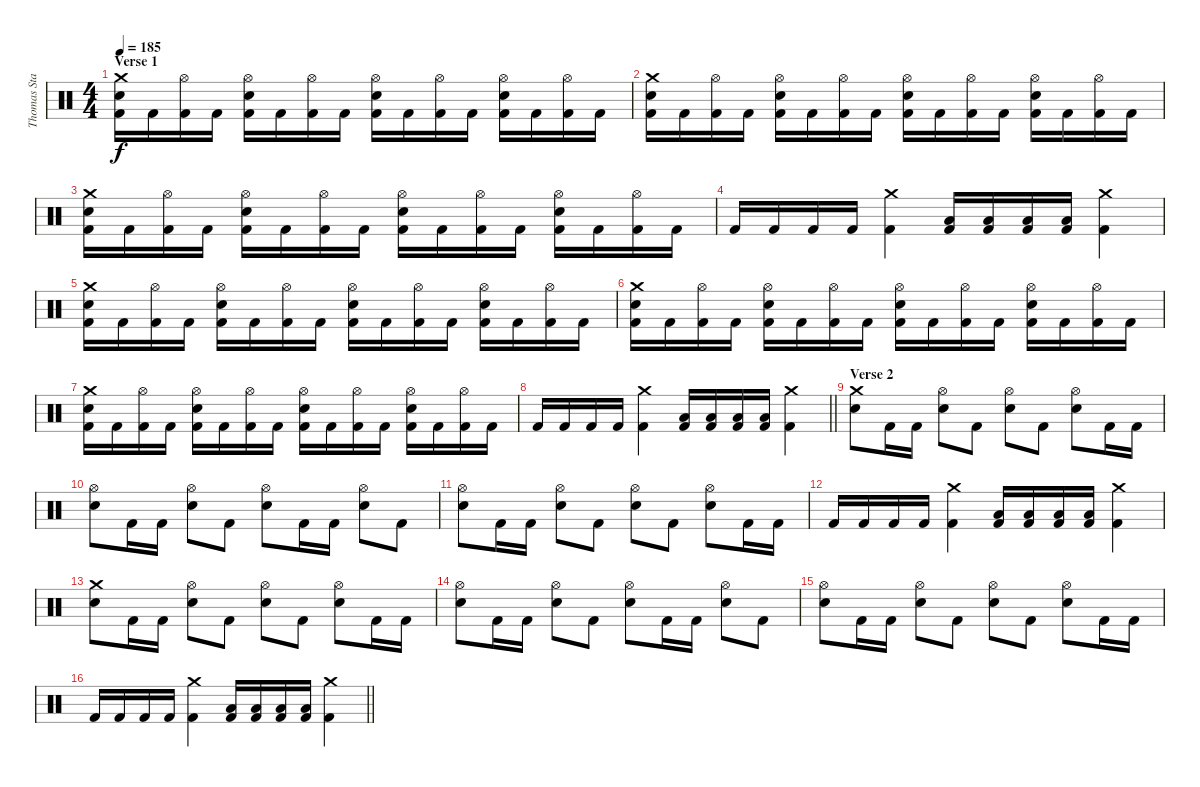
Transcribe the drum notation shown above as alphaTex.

\track ("Thomas Stauch" "Thomas Sta") {instrument percussion}
\staff {score}
\articulation defaults
\ts (4 4)
\section ("" "Verse 1")
\tempo 185
\clef neutral
\ks c
("Crash medium (hit)" "Electric Snare (hit)" "Kick (hit) 2").16{dy f} "Kick (hit) 2".16 ("Hi-Hat (open)" "Kick (hit) 2").16 "Kick (hit) 2".16 ("Hi-Hat (open)" "Electric Snare (hit)" "Kick (hit) 2").16 "Kick (hit) 2".16 ("Hi-Hat (open)" "Kick (hit) 2").16 "Kick (hit) 2".16 ("Hi-Hat (open)" "Electric Snare (hit)" "Kick (hit) 2").16 "Kick (hit) 2".16 ("Hi-Hat (open)" "Kick (hit) 2").16 "Kick (hit) 2".16 ("Hi-Hat (open)" "Electric Snare (hit)" "Kick (hit) 2").16 "Kick (hit) 2".16 ("Hi-Hat (open)" "Kick (hit) 2").16 "Kick (hit) 2".16 |
("Crash medium (hit)" "Electric Snare (hit)" "Kick (hit) 2").16 "Kick (hit) 2".16 ("Hi-Hat (open)" "Kick (hit) 2").16 "Kick (hit) 2".16 ("Hi-Hat (open)" "Electric Snare (hit)" "Kick (hit) 2").16 "Kick (hit) 2".16 ("Hi-Hat (open)" "Kick (hit) 2").16 "Kick (hit) 2".16 ("Hi-Hat (open)" "Electric Snare (hit)" "Kick (hit) 2").16 "Kick (hit) 2".16 ("Hi-Hat (open)" "Kick (hit) 2").16 "Kick (hit) 2".16 ("Hi-Hat (open)" "Electric Snare (hit)" "Kick (hit) 2").16 "Kick (hit) 2".16 ("Hi-Hat (open)" "Kick (hit) 2").16 "Kick (hit) 2".16 |
("Crash medium (hit)" "Electric Snare (hit)" "Kick (hit) 2").16 "Kick (hit) 2".16 ("Hi-Hat (open)" "Kick (hit) 2").16 "Kick (hit) 2".16 ("Hi-Hat (open)" "Electric Snare (hit)" "Kick (hit) 2").16 "Kick (hit) 2".16 ("Hi-Hat (open)" "Kick (hit) 2").16 "Kick (hit) 2".16 ("Hi-Hat (open)" "Electric Snare (hit)" "Kick (hit) 2").16 "Kick (hit) 2".16 ("Hi-Hat (open)" "Kick (hit) 2").16 "Kick (hit) 2".16 ("Hi-Hat (open)" "Electric Snare (hit)" "Kick (hit) 2").16 "Kick (hit) 2".16 ("Hi-Hat (open)" "Kick (hit) 2").16 "Kick (hit) 2".16 |
"Kick (hit) 2".16 "Kick (hit) 2".16 "Kick (hit) 2".16 "Kick (hit) 2".16 ("Crash medium (hit)" "Kick (hit) 2").4 ("Low Tom (hit)" "Kick (hit) 2").16 ("Low Tom (hit)" "Kick (hit) 2").16 ("Low Tom (hit)" "Kick (hit) 2").16 ("Low Tom (hit)" "Kick (hit) 2").16 ("Crash medium (hit)" "Kick (hit) 2").4 |
("Crash medium (hit)" "Electric Snare (hit)" "Kick (hit) 2").16 "Kick (hit) 2".16 ("Hi-Hat (open)" "Kick (hit) 2").16 "Kick (hit) 2".16 ("Hi-Hat (open)" "Electric Snare (hit)" "Kick (hit) 2").16 "Kick (hit) 2".16 ("Hi-Hat (open)" "Kick (hit) 2").16 "Kick (hit) 2".16 ("Hi-Hat (open)" "Electric Snare (hit)" "Kick (hit) 2").16 "Kick (hit) 2".16 ("Hi-Hat (open)" "Kick (hit) 2").16 "Kick (hit) 2".16 ("Hi-Hat (open)" "Electric Snare (hit)" "Kick (hit) 2").16 "Kick (hit) 2".16 ("Hi-Hat (open)" "Kick (hit) 2").16 "Kick (hit) 2".16 |
("Crash medium (hit)" "Electric Snare (hit)" "Kick (hit) 2").16 "Kick (hit) 2".16 ("Hi-Hat (open)" "Kick (hit) 2").16 "Kick (hit) 2".16 ("Hi-Hat (open)" "Electric Snare (hit)" "Kick (hit) 2").16 "Kick (hit) 2".16 ("Hi-Hat (open)" "Kick (hit) 2").16 "Kick (hit) 2".16 ("Hi-Hat (open)" "Electric Snare (hit)" "Kick (hit) 2").16 "Kick (hit) 2".16 ("Hi-Hat (open)" "Kick (hit) 2").16 "Kick (hit) 2".16 ("Hi-Hat (open)" "Electric Snare (hit)" "Kick (hit) 2").16 "Kick (hit) 2".16 ("Hi-Hat (open)" "Kick (hit) 2").16 "Kick (hit) 2".16 |
("Crash medium (hit)" "Electric Snare (hit)" "Kick (hit) 2").16 "Kick (hit) 2".16 ("Hi-Hat (open)" "Kick (hit) 2").16 "Kick (hit) 2".16 ("Hi-Hat (open)" "Electric Snare (hit)" "Kick (hit) 2").16 "Kick (hit) 2".16 ("Hi-Hat (open)" "Kick (hit) 2").16 "Kick (hit) 2".16 ("Hi-Hat (open)" "Electric Snare (hit)" "Kick (hit) 2").16 "Kick (hit) 2".16 ("Hi-Hat (open)" "Kick (hit) 2").16 "Kick (hit) 2".16 ("Hi-Hat (open)" "Electric Snare (hit)" "Kick (hit) 2").16 "Kick (hit) 2".16 ("Hi-Hat (open)" "Kick (hit) 2").16 "Kick (hit) 2".16 |
\barLineRight lightlight "Kick (hit) 2".16 "Kick (hit) 2".16 "Kick (hit) 2".16 "Kick (hit) 2".16
("Crash medium (hit)" "Kick (hit) 2").4 ("Low Tom (hit)" "Kick (hit) 2").16 ("Low Tom (hit)" "Kick (hit) 2").16 ("Low Tom (hit)" "Kick (hit) 2").16 ("Low Tom (hit)" "Kick (hit) 2").16 ("Crash medium (hit)" "Kick (hit) 2").4 |
\section ("" "Verse 2")
("Crash medium (hit)" "Electric Snare (hit)").8 "Kick (hit) 2".16 "Kick (hit) 2".16 ("Hi-Hat (open)" "Electric Snare (hit)").8 "Kick (hit) 2".8 ("Hi-Hat (open)" "Electric Snare (hit)").8 "Kick (hit) 2".8 ("Hi-Hat (open)" "Electric Snare (hit)").8 "Kick (hit) 2".16 "Kick (hit) 2".16 |
("Hi-Hat (open)" "Electric Snare (hit)").8 "Kick (hit) 2".16 "Kick (hit) 2".16 ("Hi-Hat (open)" "Electric Snare (hit)").8 "Kick (hit) 2".8 ("Hi-Hat (open)" "Electric Snare (hit)").8 "Kick (hit) 2".16 "Kick (hit) 2".16 ("Hi-Hat (open)" "Electric Snare (hit)").8 "Kick (hit) 2".8 |
("Hi-Hat (open)" "Electric Snare (hit)").8 "Kick (hit) 2".16 "Kick (hit) 2".16 ("Hi-Hat (open)" "Electric Snare (hit)").8 "Kick (hit) 2".8 ("Hi-Hat (open)" "Electric Snare (hit)").8 "Kick (hit) 2".8 ("Hi-Hat (open)" "Electric Snare (hit)").8 "Kick (hit) 2".16 "Kick (hit) 2".16 |
"Kick (hit) 2".16 "Kick (hit) 2".16 "Kick (hit) 2".16 "Kick (hit) 2".16 ("Crash medium (hit)" "Kick (hit) 2").4 ("Low Tom (hit)" "Kick (hit) 2").16 ("Low Tom (hit)" "Kick (hit) 2").16 ("Low Tom (hit)" "Kick (hit) 2").16 ("Low Tom (hit)" "Kick (hit) 2").16 ("Crash medium (hit)" "Kick (hit) 2").4 |
("Crash medium (hit)" "Electric Snare (hit)").8 "Kick (hit) 2".16 "Kick (hit) 2".16 ("Hi-Hat (open)" "Electric Snare (hit)").8 "Kick (hit) 2".8 ("Hi-Hat (open)" "Electric Snare (hit)").8 "Kick (hit) 2".8 ("Hi-Hat (open)" "Electric Snare (hit)").8 "Kick (hit) 2".16 "Kick (hit) 2".16 |
("Hi-Hat (open)" "Electric Snare (hit)").8 "Kick (hit) 2".16 "Kick (hit) 2".16 ("Hi-Hat (open)" "Electric Snare (hit)").8 "Kick (hit) 2".8 ("Hi-Hat (open)" "Electric Snare (hit)").8 "Kick (hit) 2".16 "Kick (hit) 2".16 ("Hi-Hat (open)" "Electric Snare (hit)").8 "Kick (hit) 2".8 |
("Hi-Hat (open)" "Electric Snare (hit)").8 "Kick (hit) 2".16 "Kick (hit) 2".16 ("Hi-Hat (open)" "Electric Snare (hit)").8 "Kick (hit) 2".8 ("Hi-Hat (open)" "Electric Snare (hit)").8 "Kick (hit) 2".8 ("Hi-Hat (open)" "Electric Snare (hit)").8 "Kick (hit) 2".16 "Kick (hit) 2".16 |
\barLineRight lightlight "Kick (hit) 2".16 "Kick (hit) 2".16 "Kick (hit) 2".16 "Kick (hit) 2".16
("Crash medium (hit)" "Kick (hit) 2").4 ("Low Tom (hit)" "Kick (hit) 2").16 ("Low Tom (hit)" "Kick (hit) 2").16 ("Low Tom (hit)" "Kick (hit) 2").16 ("Low Tom (hit)" "Kick (hit) 2").16 ("Crash medium (hit)" "Kick (hit) 2").4
